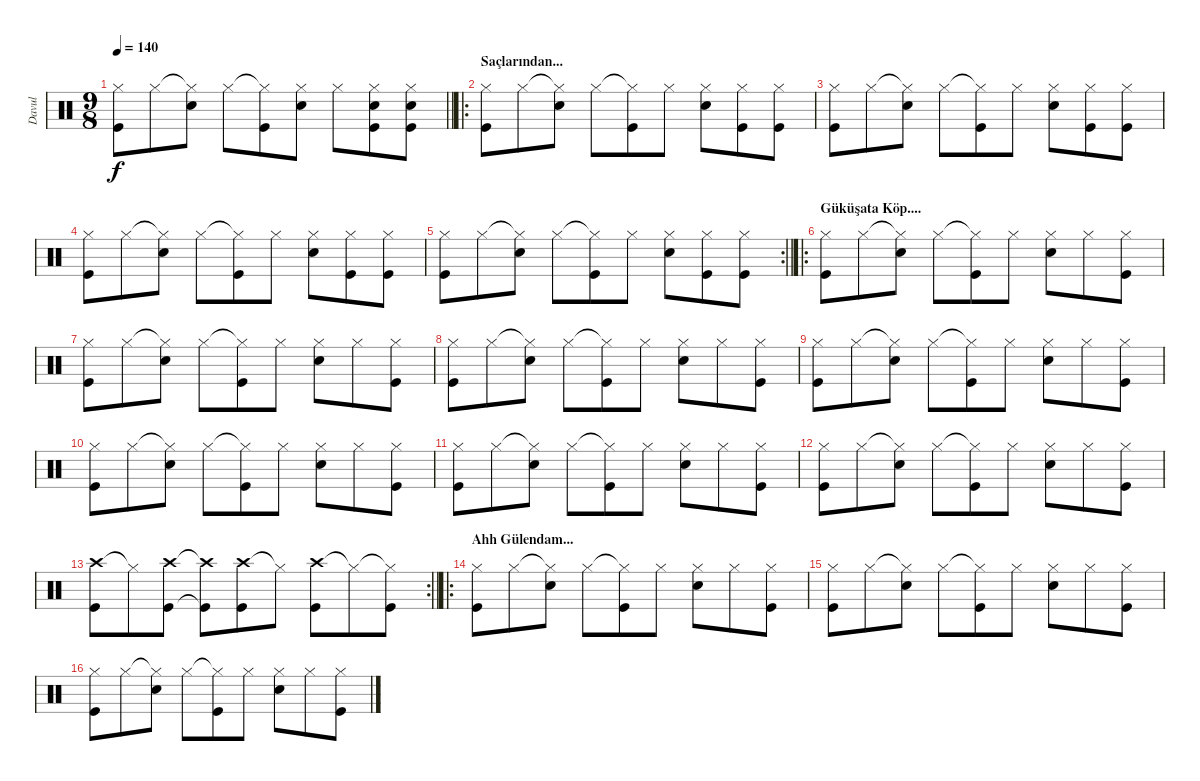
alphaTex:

\track ("Davul" "Davul") {instrument percussion}
\staff {score}
\articulation defaults
\ts (9 8)
\tempo 140
\clef neutral
\barLineRight lightlight
\ks c
("Hi-Hat (closed)" "Kick (hit)").8{dy f} "Hi-Hat (closed)".8 ("Hi-Hat (closed)"{t} "Snare (hit) 2").8 "Hi-Hat (closed)".8 ("Hi-Hat (closed)"{t} "Kick (hit)").8 ("Hi-Hat (closed)" "Snare (hit) 2").8 "Hi-Hat (closed)".8 ("Hi-Hat (closed)" "Snare (hit) 2" "Kick (hit)").8 ("Hi-Hat (closed)" "Snare (hit) 2" "Kick (hit)").8 |
\ro
\section ("" "Saçlarından...")
("Hi-Hat (closed)" "Kick (hit)").8 "Hi-Hat (closed)".8 ("Hi-Hat (closed)"{t} "Snare (hit) 2").8 "Hi-Hat (closed)".8 ("Hi-Hat (closed)"{t} "Kick (hit)").8 "Hi-Hat (closed)".8 ("Hi-Hat (closed)" "Snare (hit) 2").8 ("Hi-Hat (closed)" "Kick (hit)").8 ("Hi-Hat (closed)" "Kick (hit)").8 |
("Hi-Hat (closed)" "Kick (hit)").8 "Hi-Hat (closed)".8 ("Hi-Hat (closed)"{t} "Snare (hit) 2").8 "Hi-Hat (closed)".8 ("Hi-Hat (closed)"{t} "Kick (hit)").8 "Hi-Hat (closed)".8 ("Hi-Hat (closed)" "Snare (hit) 2").8 ("Hi-Hat (closed)" "Kick (hit)").8 ("Hi-Hat (closed)" "Kick (hit)").8 |
("Hi-Hat (closed)" "Kick (hit)").8 "Hi-Hat (closed)".8 ("Hi-Hat (closed)"{t} "Snare (hit) 2").8 "Hi-Hat (closed)".8 ("Hi-Hat (closed)"{t} "Kick (hit)").8 "Hi-Hat (closed)".8 ("Hi-Hat (closed)" "Snare (hit) 2").8 ("Hi-Hat (closed)" "Kick (hit)").8 ("Hi-Hat (closed)" "Kick (hit)").8 |
\rc 2
\barLineRight lightlight
("Hi-Hat (closed)" "Kick (hit)").8 "Hi-Hat (closed)".8 ("Hi-Hat (closed)"{t} "Snare (hit) 2").8 "Hi-Hat (closed)".8 ("Hi-Hat (closed)"{t} "Kick (hit)").8 "Hi-Hat (closed)".8 ("Hi-Hat (closed)" "Snare (hit) 2").8 ("Hi-Hat (closed)" "Kick (hit)").8 ("Hi-Hat (closed)" "Kick (hit)").8 |
\ro
\section ("" "Güküşata Köp....")
("Hi-Hat (closed)" "Kick (hit)").8 "Hi-Hat (closed)".8 ("Hi-Hat (closed)"{t} "Snare (hit) 2").8 "Hi-Hat (closed)".8 ("Hi-Hat (closed)"{t} "Kick (hit)").8 "Hi-Hat (closed)".8 ("Hi-Hat (closed)" "Snare (hit) 2").8 "Hi-Hat (closed)".8 ("Hi-Hat (closed)" "Kick (hit)").8 |
("Hi-Hat (closed)" "Kick (hit)").8 "Hi-Hat (closed)".8 ("Hi-Hat (closed)"{t} "Snare (hit) 2").8 "Hi-Hat (closed)".8 ("Hi-Hat (closed)"{t} "Kick (hit)").8 "Hi-Hat (closed)".8 ("Hi-Hat (closed)" "Snare (hit) 2").8 "Hi-Hat (closed)".8 ("Hi-Hat (closed)" "Kick (hit)").8 |
("Hi-Hat (closed)" "Kick (hit)").8 "Hi-Hat (closed)".8 ("Hi-Hat (closed)"{t} "Snare (hit) 2").8 "Hi-Hat (closed)".8 ("Hi-Hat (closed)"{t} "Kick (hit)").8 "Hi-Hat (closed)".8 ("Hi-Hat (closed)" "Snare (hit) 2").8 "Hi-Hat (closed)".8 ("Hi-Hat (closed)" "Kick (hit)").8 |
("Hi-Hat (closed)" "Kick (hit)").8 "Hi-Hat (closed)".8 ("Hi-Hat (closed)"{t} "Snare (hit) 2").8 "Hi-Hat (closed)".8 ("Hi-Hat (closed)"{t} "Kick (hit)").8 "Hi-Hat (closed)".8 ("Hi-Hat (closed)" "Snare (hit) 2").8 "Hi-Hat (closed)".8 ("Hi-Hat (closed)" "Kick (hit)").8 |
("Hi-Hat (closed)" "Kick (hit)").8 "Hi-Hat (closed)".8 ("Hi-Hat (closed)"{t} "Snare (hit) 2").8 "Hi-Hat (closed)".8 ("Hi-Hat (closed)"{t} "Kick (hit)").8 "Hi-Hat (closed)".8 ("Hi-Hat (closed)" "Snare (hit) 2").8 "Hi-Hat (closed)".8 ("Hi-Hat (closed)" "Kick (hit)").8 |
("Hi-Hat (closed)" "Kick (hit)").8 "Hi-Hat (closed)".8 ("Hi-Hat (closed)"{t} "Snare (hit) 2").8 "Hi-Hat (closed)".8 ("Hi-Hat (closed)"{t} "Kick (hit)").8 "Hi-Hat (closed)".8 ("Hi-Hat (closed)" "Snare (hit) 2").8 "Hi-Hat (closed)".8 ("Hi-Hat (closed)" "Kick (hit)").8 |
("Hi-Hat (closed)" "Kick (hit)").8 "Hi-Hat (closed)".8 ("Hi-Hat (closed)"{t} "Snare (hit) 2").8 "Hi-Hat (closed)".8 ("Hi-Hat (closed)"{t} "Kick (hit)").8 "Hi-Hat (closed)".8 ("Hi-Hat (closed)" "Snare (hit) 2").8 "Hi-Hat (closed)".8 ("Hi-Hat (closed)" "Kick (hit)").8 |
\rc 2
\barLineRight lightlight
("Crash high (hit)" "Kick (hit)").8 "Hi-Hat (closed)"{t}.8 ("Crash high (hit)" "Kick (hit)").8 ("Crash high (hit)"{t} "Kick (hit)"{t}).8 ("Crash high (hit)" "Kick (hit)").8 "Hi-Hat (closed)"{t}.8 ("Crash high (hit)" "Kick (hit)").8 "Hi-Hat (closed)"{t}.8 ("Hi-Hat (closed)"{t} "Kick (hit)").8 |
\ro
\section ("" "Ahh Gülendam...")
("Hi-Hat (closed)" "Kick (hit)").8 "Hi-Hat (closed)".8 ("Hi-Hat (closed)"{t} "Snare (hit) 2").8 "Hi-Hat (closed)".8 ("Hi-Hat (closed)"{t} "Kick (hit)").8 "Hi-Hat (closed)".8 ("Hi-Hat (closed)" "Snare (hit) 2").8 "Hi-Hat (closed)".8 ("Hi-Hat (closed)" "Kick (hit)").8 |
("Hi-Hat (closed)" "Kick (hit)").8 "Hi-Hat (closed)".8 ("Hi-Hat (closed)"{t} "Snare (hit) 2").8 "Hi-Hat (closed)".8 ("Hi-Hat (closed)"{t} "Kick (hit)").8 "Hi-Hat (closed)".8 ("Hi-Hat (closed)" "Snare (hit) 2").8 "Hi-Hat (closed)".8 ("Hi-Hat (closed)" "Kick (hit)").8 |
("Hi-Hat (closed)" "Kick (hit)").8 "Hi-Hat (closed)".8 ("Hi-Hat (closed)"{t} "Snare (hit) 2").8 "Hi-Hat (closed)".8 ("Hi-Hat (closed)"{t} "Kick (hit)").8 "Hi-Hat (closed)".8 ("Hi-Hat (closed)" "Snare (hit) 2").8 "Hi-Hat (closed)".8 ("Hi-Hat (closed)" "Kick (hit)").8
